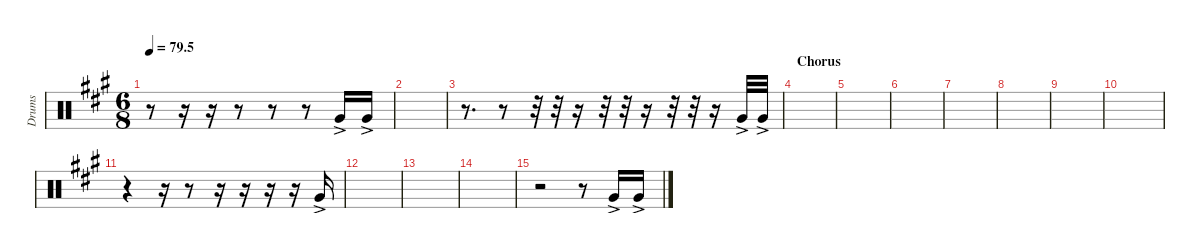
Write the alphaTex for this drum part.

\defaultSystemsLayout 4
\hideDynamics
\bracketExtendMode nobrackets
\otherSystemsTrackNameOrientation horizontal
\track ("Tom 04" "Drums") {instrument percussion}
\staff {score}
\articulation defaults
\ts (6 8)
\tempo
79.5
\accidentals auto
\clef neutral
\ottava regular
\simile none
\scale
0.333333
\ks a
r.8{dy f} r.16 r.16 r.8 r.8 r.8 "Very Low Tom (hit)"{ac acc forcenatural}.16 "Very Low Tom (hit)"{ac acc forcenatural}.16 |
\scale
0.333333 |
\scale
0.333333 r.8{d} r.8 r.32 r.32 r.16 r.32 r.32 r.16 r.32 r.32 r.16 "Very Low Tom (hit)"{ac acc forcenatural}.32 "Very Low Tom (hit)"{ac acc forcenatural}.32 |
\section ("" "Chorus")
\scale
0.333333 |
\scale
0.333333 |
\scale
0.333333 |
\scale
0.333333 |
\scale
0.333333 |
\scale
0.333333 |
\scale
0.333333 |
\scale
0.333333 r.4 r.16 r.8 r.16 r.16 r.16 r.16 "Very Low Tom (hit)"{ac acc forcenatural}.16 |
\scale
0.333333 |
\scale
0.333333 |
\scale
0.333333 |
\scale
0.333333 r.2 r.8 "Very Low Tom (hit)"{ac acc forcenatural}.16 "Very Low Tom (hit)"{ac acc forcenatural}.16 |
\scale
0.333333
